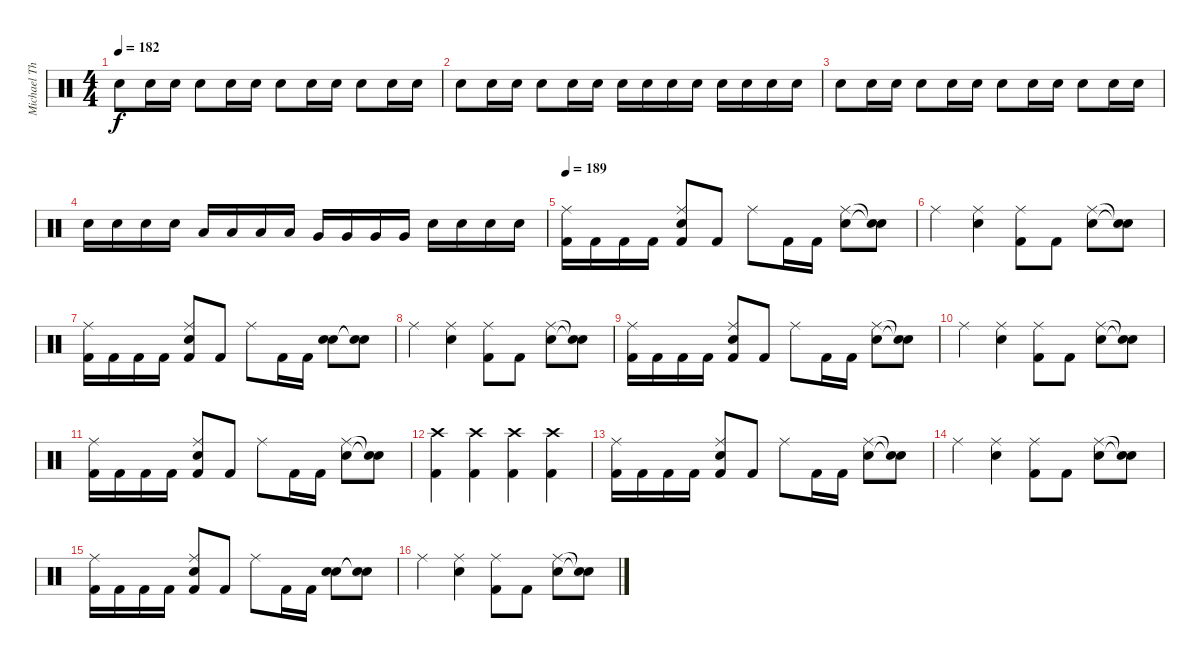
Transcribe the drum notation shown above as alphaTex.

\track ("Michael Thomas" "Michael Th") {instrument percussion}
\staff {score}
\articulation defaults
\ts (4 4)
\tempo 182
\clef neutral
\ks c "Electric Snare (hit)".8{dy f} "Electric Snare (hit)".16 "Electric Snare (hit)".16 "Electric Snare (hit)".8 "Electric Snare (hit)".16 "Electric Snare (hit)".16 "Electric Snare (hit)".8 "Electric Snare (hit)".16 "Electric Snare (hit)".16 "Electric Snare (hit)".8 "Electric Snare (hit)".16 "Electric Snare (hit)".16
|
"Electric Snare (hit)".8 "Electric Snare (hit)".16 "Electric Snare (hit)".16 "Electric Snare (hit)".8 "Electric Snare (hit)".16 "Electric Snare (hit)".16 "Electric Snare (hit)".16 "Electric Snare (hit)".16 "Electric Snare (hit)".16 "Electric Snare (hit)".16 "Electric Snare (hit)".16 "Electric Snare (hit)".16 "Electric Snare (hit)".16 "Electric Snare (hit)".16 |
"Electric Snare (hit)".8 "Electric Snare (hit)".16 "Electric Snare (hit)".16 "Electric Snare (hit)".8 "Electric Snare (hit)".16 "Electric Snare (hit)".16 "Electric Snare (hit)".8 "Electric Snare (hit)".16 "Electric Snare (hit)".16 "Electric Snare (hit)".8 "Electric Snare (hit)".16 "Electric Snare (hit)".16 |
"Electric Snare (hit)".16 "Electric Snare (hit)".16 "Electric Snare (hit)".16 "Electric Snare (hit)".16 "Low Tom (hit)".16 "Low Tom (hit)".16 "Low Tom (hit)".16 "Low Tom (hit)".16 "Very Low Tom (hit)".16 "Very Low Tom (hit)".16 "Very Low Tom (hit)".16 "Very Low Tom (hit)".16 "Electric Snare (hit)".16 "Electric Snare (hit)".16 "Electric Snare (hit)".16 "Electric Snare (hit)".16 |
\tempo 189
("Ride (middle)" "Kick (hit) 2").16 "Kick (hit) 2".16 "Kick (hit) 2".16 "Kick (hit) 2".16 ("Ride (middle)" "Electric Snare (hit)" "Kick (hit) 2").8 "Kick (hit) 2".8 "Ride (middle)".8 "Kick (hit) 2".16 "Kick (hit) 2".16 ("Ride (middle)" "Electric Snare (hit)").8 ("Snare (hit)"{t} "Snare (hit)"{t}).8 |
"Ride (middle)".4 ("Ride (middle)" "Electric Snare (hit)").4 ("Ride (middle)" "Kick (hit) 2").8 "Kick (hit) 2".8 ("Ride (middle)" "Electric Snare (hit)").8 ("Snare (hit)"{t} "Snare (hit)"{t}).8 |
("Ride (middle)" "Kick (hit) 2").16 "Kick (hit) 2".16 "Kick (hit) 2".16 "Kick (hit) 2".16 ("Ride (middle)" "Electric Snare (hit)" "Kick (hit) 2").8 "Kick (hit) 2".8 "Ride (middle)".8 "Kick (hit) 2".16 "Kick (hit) 2".16 ("Snare (hit)" "Electric Snare (hit)").8 ("Snare (hit)"{t} "Snare (hit)"{t}).8 |
"Ride (middle)".4 ("Ride (middle)" "Electric Snare (hit)").4 ("Ride (middle)" "Kick (hit) 2").8 "Kick (hit) 2".8 ("Ride (middle)" "Electric Snare (hit)").8 ("Snare (hit)"{t} "Snare (hit)"{t}).8 |
("Ride (middle)" "Kick (hit) 2").16 "Kick (hit) 2".16 "Kick (hit) 2".16 "Kick (hit) 2".16 ("Ride (middle)" "Electric Snare (hit)" "Kick (hit) 2").8 "Kick (hit) 2".8 "Ride (middle)".8 "Kick (hit) 2".16 "Kick (hit) 2".16 ("Ride (middle)" "Electric Snare (hit)").8 ("Snare (hit)"{t} "Snare (hit)"{t}).8 |
"Ride (middle)".4 ("Ride (middle)" "Electric Snare (hit)").4 ("Ride (middle)" "Kick (hit) 2").8 "Kick (hit) 2".8 ("Ride (middle)" "Electric Snare (hit)").8 ("Snare (hit)"{t} "Snare (hit)"{t}).8 |
("Ride (middle)" "Kick (hit) 2").16 "Kick (hit) 2".16 "Kick (hit) 2".16 "Kick (hit) 2".16 ("Ride (middle)" "Electric Snare (hit)" "Kick (hit) 2").8 "Kick (hit) 2".8 "Ride (middle)".8 "Kick (hit) 2".16 "Kick (hit) 2".16 ("Ride (middle)" "Electric Snare (hit)").8 ("Snare (hit)"{t} "Snare (hit)"{t}).8 |
("Crash high (hit)" "Kick (hit) 2").4 ("Crash high (hit)" "Kick (hit) 2").4 ("Crash high (hit)" "Kick (hit) 2").4 ("Crash high (hit)" "Kick (hit) 2").4 |
("Ride (middle)" "Kick (hit) 2").16 "Kick (hit) 2".16 "Kick (hit) 2".16 "Kick (hit) 2".16 ("Ride (middle)" "Electric Snare (hit)" "Kick (hit) 2").8 "Kick (hit) 2".8 "Ride (middle)".8 "Kick (hit) 2".16 "Kick (hit) 2".16 ("Ride (middle)" "Electric Snare (hit)").8 ("Snare (hit)"{t} "Snare (hit)"{t}).8 |
"Ride (middle)".4 ("Ride (middle)" "Electric Snare (hit)").4 ("Ride (middle)" "Kick (hit) 2").8 "Kick (hit) 2".8 ("Ride (middle)" "Electric Snare (hit)").8 ("Snare (hit)"{t} "Snare (hit)"{t}).8 |
("Ride (middle)" "Kick (hit) 2").16 "Kick (hit) 2".16 "Kick (hit) 2".16 "Kick (hit) 2".16 ("Ride (middle)" "Electric Snare (hit)" "Kick (hit) 2").8 "Kick (hit) 2".8 "Ride (middle)".8 "Kick (hit) 2".16 "Kick (hit) 2".16 ("Snare (hit)" "Electric Snare (hit)").8 ("Snare (hit)"{t} "Snare (hit)"{t}).8 |
"Ride (middle)".4 ("Ride (middle)" "Electric Snare (hit)").4 ("Ride (middle)" "Kick (hit) 2").8 "Kick (hit) 2".8 ("Ride (middle)" "Electric Snare (hit)").8 ("Snare (hit)"{t} "Snare (hit)"{t}).8
